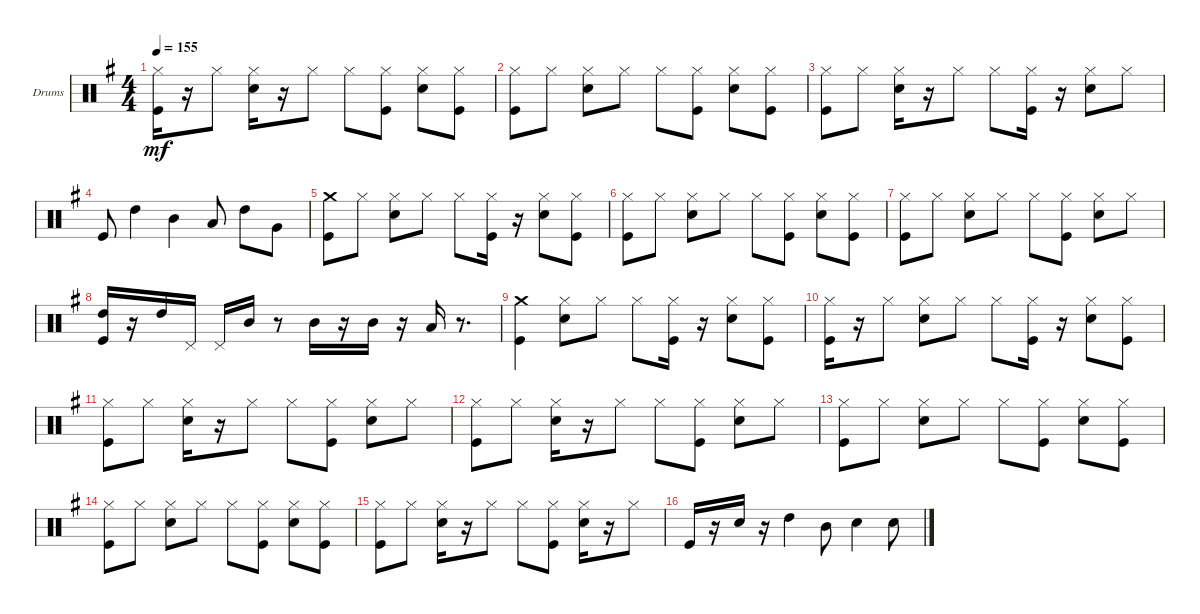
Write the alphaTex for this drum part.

\bracketExtendMode groupsimilarinstruments
\firstSystemTrackNameOrientation horizontal
\otherSystemsTrackNameOrientation horizontal
\track ("Drumkit" "Drums") {instrument percussion}
\staff {score}
\articulation defaults
\ts (4 4)
\tempo 155
\clef neutral
\scale
0.333333
\ks g
("Kick (hit)" "Hi-Hat (closed)").16{dy mf} r.16 "Hi-Hat (closed)".8 ("Hi-Hat (closed)" "Snare (hit) 2").16 r.16 "Hi-Hat (closed)".8 "Hi-Hat (closed)".8 ("Hi-Hat (closed)" "Kick (hit)").8 ("Hi-Hat (closed)" "Snare (hit) 2").8 ("Kick (hit)" "Hi-Hat (closed)").8 |
\scale
0.333333 ("Hi-Hat (closed)" "Kick (hit)").8 "Hi-Hat (closed)".8 ("Snare (hit) 2" "Hi-Hat (closed)").8 "Hi-Hat (closed)".8 "Hi-Hat (closed)".8 ("Kick (hit)" "Hi-Hat (closed)").8 ("Hi-Hat (closed)" "Snare (hit) 2").8 ("Kick (hit)" "Hi-Hat (closed)").8 |
\scale
0.333333 ("Kick (hit)" "Hi-Hat (closed)").8 "Hi-Hat (closed)".8 ("Hi-Hat (closed)" "Snare (hit) 2").16 r.16 "Hi-Hat (closed)".8 "Hi-Hat (closed)".8 ("Hi-Hat (closed)" "Kick (hit)").16 r.16 ("Hi-Hat (closed)" "Snare (hit) 2").8 "Hi-Hat (closed)".8 |
\scale
0.333333 "Kick (hit)".8 "High Tom (hit)".4 "Mid Tom (hit)".4 "Low Tom (hit)".8 "High Tom (hit)".8 "Very Low Tom (hit)".8 |
\scale
0.333333 ("Kick (hit)" "Crash medium (hit)").8 "Hi-Hat (closed)".8 ("Hi-Hat (closed)" "Snare (hit) 2").8 "Hi-Hat (closed)".8 "Hi-Hat (closed)".8 ("Hi-Hat (closed)" "Kick (hit)").16 r.16 ("Hi-Hat (closed)" "Snare (hit) 2").8 ("Hi-Hat (closed)" "Kick (hit)").8 |
\scale
0.333333 ("Kick (hit)" "Hi-Hat (closed)").8 "Hi-Hat (closed)".8 ("Hi-Hat (closed)" "Snare (hit) 2").8 "Hi-Hat (closed)".8 "Hi-Hat (closed)".8 ("Kick (hit)" "Hi-Hat (closed)").8 ("Hi-Hat (closed)" "Snare (hit) 2").8 ("Kick (hit)" "Hi-Hat (closed)").8 |
\scale
0.333333 ("Kick (hit)" "Hi-Hat (closed)").8 "Hi-Hat (closed)".8 ("Hi-Hat (closed)" "Snare (hit) 2").8 "Hi-Hat (closed)".8 "Hi-Hat (closed)".8 ("Hi-Hat (closed)" "Kick (hit)").8 ("Hi-Hat (closed)" "Snare (hit) 2").8 "Hi-Hat (closed)".8 |
\scale
0.333333 ("High Tom (hit)" "Kick (hit)").16 r.16 "High Tom (hit)".16 "Pedal Hi-Hat (hit)".16 "Pedal Hi-Hat (hit)".16 "Mid Tom (hit)".16 r.8 "Mid Tom (hit)".16 r.16 "Mid Tom (hit)".16 r.16 "Low Tom (hit)".16 r.8{d} |
\scale
0.333333 ("Crash medium (hit)" "Kick (hit)").4 ("Hi-Hat (closed)" "Snare (hit) 2").8 "Hi-Hat (closed)".8 "Hi-Hat (closed)".8 ("Hi-Hat (closed)" "Kick (hit)").16 r.16 ("Hi-Hat (closed)" "Snare (hit) 2").8 ("Kick (hit)" "Hi-Hat (closed)").8 |
\scale
0.333333 ("Kick (hit)" "Hi-Hat (closed)").16 r.16 "Hi-Hat (closed)".8 ("Hi-Hat (closed)" "Snare (hit) 2").8 "Hi-Hat (closed)".8 "Hi-Hat (closed)".8 ("Hi-Hat (closed)" "Kick (hit)").16 r.16 ("Hi-Hat (closed)" "Snare (hit) 2").8 ("Hi-Hat (closed)" "Kick (hit)").8 |
\scale
0.333333 ("Hi-Hat (closed)" "Kick (hit)").8 "Hi-Hat (closed)".8 ("Hi-Hat (closed)" "Snare (hit) 2").16 r.16 "Hi-Hat (closed)".8 "Hi-Hat (closed)".8 ("Hi-Hat (closed)" "Kick (hit)").8 ("Hi-Hat (closed)" "Snare (hit) 2").8 "Hi-Hat (closed)".8 |
\scale
0.333333 ("Kick (hit)" "Hi-Hat (closed)").8 "Hi-Hat (closed)".8 ("Hi-Hat (closed)" "Snare (hit) 2").16 r.16 "Hi-Hat (closed)".8 "Hi-Hat (closed)".8 ("Hi-Hat (closed)" "Kick (hit)").8 ("Hi-Hat (closed)" "Snare (hit) 2").8 "Hi-Hat (closed)".8 |
\scale
0.333333 ("Hi-Hat (closed)" "Kick (hit)").8 "Hi-Hat (closed)".8 ("Hi-Hat (closed)" "Snare (hit) 2").8 "Hi-Hat (closed)".8 "Hi-Hat (closed)".8 ("Hi-Hat (closed)" "Kick (hit)").8 ("Hi-Hat (closed)" "Snare (hit) 2").8 ("Kick (hit)" "Hi-Hat (closed)").8 |
\scale
0.333333 ("Hi-Hat (closed)" "Kick (hit)").8 "Hi-Hat (closed)".8 ("Hi-Hat (closed)" "Snare (hit) 2").8 "Hi-Hat (closed)".8 "Hi-Hat (closed)".8 ("Hi-Hat (closed)" "Kick (hit)").8 ("Hi-Hat (closed)" "Snare (hit) 2").8 ("Kick (hit)" "Hi-Hat (closed)").8 |
\scale
0.333333 ("Hi-Hat (closed)" "Kick (hit)").8 "Hi-Hat (closed)".8 ("Hi-Hat (closed)" "Snare (hit) 2").16 r.16 "Hi-Hat (closed)".8 "Hi-Hat (closed)".8 ("Hi-Hat (closed)" "Kick (hit)").8 ("Hi-Hat (closed)" "Snare (hit) 2").16 r.16 "Hi-Hat (closed)".8 |
\scale
0.333333 "Kick (hit)".16 r.16 "Snare (hit) 2".16 r.16 "High Tom (hit)".4 "Mid Tom (hit)".8 "Snare (hit) 2".4 "Snare (hit) 2".8
